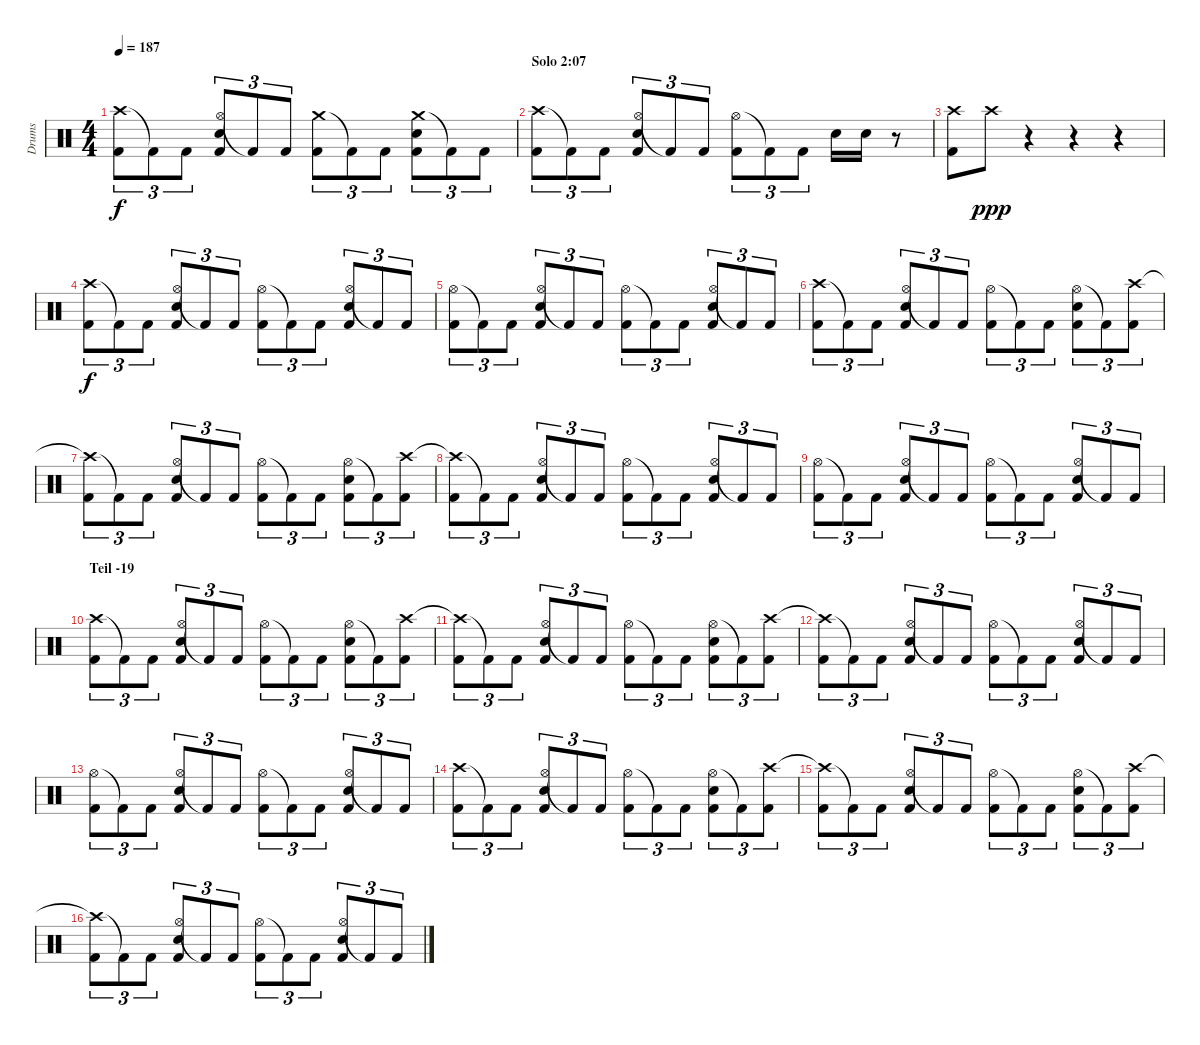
\track ("Drums" "Drums") {instrument percussion}
\staff {score}
\articulation defaults
\ts (4 4)
\tempo 187
\clef neutral
\ks c
("Crash high (hit)" "Kick (hit) 2").8{tu (3 2) dy f} "Kick (hit) 2"{t}.8{tu (3 2)} "Kick (hit) 2".8{tu (3 2)} ("Hi-Hat (open)" "Snare (hit) 2" "Kick (hit) 2").8{tu (3 2)} "Kick (hit) 2"{t}.8{tu (3 2)} "Kick (hit) 2".8{tu (3 2)} ("Crash medium (hit)" "Kick (hit) 2").8{tu (3 2)} "Kick (hit) 2"{t}.8{tu (3 2)} "Kick (hit) 2".8{tu (3 2)} ("Crash medium (hit)" "Snare (hit) 2" "Kick (hit) 2").8{tu (3 2)} "Kick (hit) 2"{t}.8{tu (3 2)} "Kick (hit) 2".8{tu (3 2)} |
\section ("" "Solo 2:07")
("Crash high (hit)" "Kick (hit) 2").8{tu (3 2)} "Kick (hit) 2"{t}.8{tu (3 2)} "Kick (hit) 2".8{tu (3 2)} ("Hi-Hat (open)" "Snare (hit) 2" "Kick (hit) 2").8{tu (3 2)} "Kick (hit) 2"{t}.8{tu (3 2)} "Kick (hit) 2".8{tu (3 2)} ("Hi-Hat (open)" "Kick (hit) 2").8{tu (3 2)} "Kick (hit) 2"{t}.8{tu (3 2)} "Kick (hit) 2".8{tu (3 2)} "Snare (hit) 2".16 "Snare (hit) 2".16 r.8 |
("Kick (hit) 2" "Crash high (hit)").8 "Crash high (hit)".8{dy ppp} r.4 r.4 r.4 |
("Crash high (hit)" "Kick (hit) 2").8{tu (3 2) dy f} "Kick (hit) 2"{t}.8{tu (3 2)} "Kick (hit) 2".8{tu (3 2)} ("Hi-Hat (open)" "Snare (hit) 2" "Kick (hit) 2").8{tu (3 2)} "Kick (hit) 2"{t}.8{tu (3 2)} "Kick (hit) 2".8{tu (3 2)} ("Hi-Hat (open)" "Kick (hit) 2").8{tu (3 2)} "Kick (hit) 2"{t}.8{tu (3 2)} "Kick (hit) 2".8{tu (3 2)} ("Hi-Hat (open)" "Snare (hit) 2" "Kick (hit) 2").8{tu (3 2)} "Kick (hit) 2"{t}.8{tu (3 2)} "Kick (hit) 2".8{tu (3 2)} |
("Hi-Hat (open)" "Kick (hit) 2").8{tu (3 2)} "Kick (hit) 2"{t}.8{tu (3 2)} "Kick (hit) 2".8{tu (3 2)} ("Hi-Hat (open)" "Snare (hit) 2" "Kick (hit) 2").8{tu (3 2)} "Kick (hit) 2"{t}.8{tu (3 2)} "Kick (hit) 2".8{tu (3 2)} ("Hi-Hat (open)" "Kick (hit) 2").8{tu (3 2)} "Kick (hit) 2"{t}.8{tu (3 2)} "Kick (hit) 2".8{tu (3 2)} ("Hi-Hat (open)" "Snare (hit) 2" "Kick (hit) 2").8{tu (3 2)} "Kick (hit) 2"{t}.8{tu (3 2)} "Kick (hit) 2".8{tu (3 2)} |
("Crash high (hit)" "Kick (hit) 2").8{tu (3 2)} "Kick (hit) 2"{t}.8{tu (3 2)} "Kick (hit) 2".8{tu (3 2)} ("Hi-Hat (open)" "Snare (hit) 2" "Kick (hit) 2").8{tu (3 2)} "Kick (hit) 2"{t}.8{tu (3 2)} "Kick (hit) 2".8{tu (3 2)} ("Hi-Hat (open)" "Kick (hit) 2").8{tu (3 2)} "Kick (hit) 2"{t}.8{tu (3 2)} "Kick (hit) 2".8{tu (3 2)} ("Hi-Hat (open)" "Snare (hit) 2" "Kick (hit) 2").8{tu (3 2)} "Kick (hit) 2"{t}.8{tu (3 2)} ("Crash high (hit)" "Kick (hit) 2").8{tu (3 2)} |
("Crash high (hit)"{t} "Kick (hit) 2").8{tu (3 2)} "Kick (hit) 2"{t}.8{tu (3 2)} "Kick (hit) 2".8{tu (3 2)} ("Hi-Hat (open)" "Snare (hit) 2" "Kick (hit) 2").8{tu (3 2)} "Kick (hit) 2"{t}.8{tu (3 2)} "Kick (hit) 2".8{tu (3 2)} ("Hi-Hat (open)" "Kick (hit) 2").8{tu (3 2)} "Kick (hit) 2"{t}.8{tu (3 2)} "Kick (hit) 2".8{tu (3 2)} ("Hi-Hat (open)" "Snare (hit) 2" "Kick (hit) 2").8{tu (3 2)} "Kick (hit) 2"{t}.8{tu (3 2)} ("Crash high (hit)" "Kick (hit) 2").8{tu (3 2)} |
("Crash high (hit)"{t} "Kick (hit) 2").8{tu (3 2)} "Kick (hit) 2"{t}.8{tu (3 2)} "Kick (hit) 2".8{tu (3 2)} ("Hi-Hat (open)" "Snare (hit) 2" "Kick (hit) 2").8{tu (3 2)} "Kick (hit) 2"{t}.8{tu (3 2)} "Kick (hit) 2".8{tu (3 2)} ("Hi-Hat (open)" "Kick (hit) 2").8{tu (3 2)} "Kick (hit) 2"{t}.8{tu (3 2)} "Kick (hit) 2".8{tu (3 2)} ("Hi-Hat (open)" "Snare (hit) 2" "Kick (hit) 2").8{tu (3 2)} "Kick (hit) 2"{t}.8{tu (3 2)} "Kick (hit) 2".8{tu (3 2)} |
("Hi-Hat (open)" "Kick (hit) 2").8{tu (3 2)} "Kick (hit) 2"{t}.8{tu (3 2)} "Kick (hit) 2".8{tu (3 2)} ("Hi-Hat (open)" "Snare (hit) 2" "Kick (hit) 2").8{tu (3 2)} "Kick (hit) 2"{t}.8{tu (3 2)} "Kick (hit) 2".8{tu (3 2)} ("Hi-Hat (open)" "Kick (hit) 2").8{tu (3 2)} "Kick (hit) 2"{t}.8{tu (3 2)} "Kick (hit) 2".8{tu (3 2)} ("Hi-Hat (open)" "Snare (hit) 2" "Kick (hit) 2").8{tu (3 2)} "Kick (hit) 2"{t}.8{tu (3 2)} "Kick (hit) 2".8{tu (3 2)} |
\section ("" "Teil -19")
("Crash high (hit)" "Kick (hit) 2").8{tu (3 2)} "Kick (hit) 2"{t}.8{tu (3 2)} "Kick (hit) 2".8{tu (3 2)} ("Hi-Hat (open)" "Snare (hit) 2" "Kick (hit) 2").8{tu (3 2)} "Kick (hit) 2"{t}.8{tu (3 2)} "Kick (hit) 2".8{tu (3 2)} ("Hi-Hat (open)" "Kick (hit) 2").8{tu (3 2)} "Kick (hit) 2"{t}.8{tu (3 2)} "Kick (hit) 2".8{tu (3 2)} ("Hi-Hat (open)" "Snare (hit) 2" "Kick (hit) 2").8{tu (3 2)} "Kick (hit) 2"{t}.8{tu (3 2)} ("Crash high (hit)" "Kick (hit) 2").8{tu (3 2)} |
("Crash high (hit)"{t} "Kick (hit) 2").8{tu (3 2)} "Kick (hit) 2"{t}.8{tu (3 2)} "Kick (hit) 2".8{tu (3 2)} ("Hi-Hat (open)" "Snare (hit) 2" "Kick (hit) 2").8{tu (3 2)} "Kick (hit) 2"{t}.8{tu (3 2)} "Kick (hit) 2".8{tu (3 2)} ("Hi-Hat (open)" "Kick (hit) 2").8{tu (3 2)} "Kick (hit) 2"{t}.8{tu (3 2)} "Kick (hit) 2".8{tu (3 2)} ("Hi-Hat (open)" "Snare (hit) 2" "Kick (hit) 2").8{tu (3 2)} "Kick (hit) 2"{t}.8{tu (3 2)} ("Crash high (hit)" "Kick (hit) 2").8{tu (3 2)} |
("Crash high (hit)"{t} "Kick (hit) 2").8{tu (3 2)} "Kick (hit) 2"{t}.8{tu (3 2)} "Kick (hit) 2".8{tu (3 2)} ("Hi-Hat (open)" "Snare (hit) 2" "Kick (hit) 2").8{tu (3 2)} "Kick (hit) 2"{t}.8{tu (3 2)} "Kick (hit) 2".8{tu (3 2)} ("Hi-Hat (open)" "Kick (hit) 2").8{tu (3 2)} "Kick (hit) 2"{t}.8{tu (3 2)} "Kick (hit) 2".8{tu (3 2)} ("Hi-Hat (open)" "Snare (hit) 2" "Kick (hit) 2").8{tu (3 2)} "Kick (hit) 2"{t}.8{tu (3 2)} "Kick (hit) 2".8{tu (3 2)} |
("Hi-Hat (open)" "Kick (hit) 2").8{tu (3 2)} "Kick (hit) 2"{t}.8{tu (3 2)} "Kick (hit) 2".8{tu (3 2)} ("Hi-Hat (open)" "Snare (hit) 2" "Kick (hit) 2").8{tu (3 2)} "Kick (hit) 2"{t}.8{tu (3 2)} "Kick (hit) 2".8{tu (3 2)} ("Hi-Hat (open)" "Kick (hit) 2").8{tu (3 2)} "Kick (hit) 2"{t}.8{tu (3 2)} "Kick (hit) 2".8{tu (3 2)} ("Hi-Hat (open)" "Snare (hit) 2" "Kick (hit) 2").8{tu (3 2)} "Kick (hit) 2"{t}.8{tu (3 2)} "Kick (hit) 2".8{tu (3 2)} |
("Crash high (hit)" "Kick (hit) 2").8{tu (3 2)} "Kick (hit) 2"{t}.8{tu (3 2)} "Kick (hit) 2".8{tu (3 2)} ("Hi-Hat (open)" "Snare (hit) 2" "Kick (hit) 2").8{tu (3 2)} "Kick (hit) 2"{t}.8{tu (3 2)} "Kick (hit) 2".8{tu (3 2)} ("Hi-Hat (open)" "Kick (hit) 2").8{tu (3 2)} "Kick (hit) 2"{t}.8{tu (3 2)} "Kick (hit) 2".8{tu (3 2)} ("Hi-Hat (open)" "Snare (hit) 2" "Kick (hit) 2").8{tu (3 2)} "Kick (hit) 2"{t}.8{tu (3 2)} ("Crash high (hit)" "Kick (hit) 2").8{tu (3 2)} |
("Crash high (hit)"{t} "Kick (hit) 2").8{tu (3 2)} "Kick (hit) 2"{t}.8{tu (3 2)} "Kick (hit) 2".8{tu (3 2)} ("Hi-Hat (open)" "Snare (hit) 2" "Kick (hit) 2").8{tu (3 2)} "Kick (hit) 2"{t}.8{tu (3 2)} "Kick (hit) 2".8{tu (3 2)} ("Hi-Hat (open)" "Kick (hit) 2").8{tu (3 2)} "Kick (hit) 2"{t}.8{tu (3 2)} "Kick (hit) 2".8{tu (3 2)} ("Hi-Hat (open)" "Snare (hit) 2" "Kick (hit) 2").8{tu (3 2)} "Kick (hit) 2"{t}.8{tu (3 2)} ("Crash high (hit)" "Kick (hit) 2").8{tu (3 2)} |
("Crash high (hit)"{t} "Kick (hit) 2").8{tu (3 2)} "Kick (hit) 2"{t}.8{tu (3 2)} "Kick (hit) 2".8{tu (3 2)} ("Hi-Hat (open)" "Snare (hit) 2" "Kick (hit) 2").8{tu (3 2)} "Kick (hit) 2"{t}.8{tu (3 2)} "Kick (hit) 2".8{tu (3 2)} ("Hi-Hat (open)" "Kick (hit) 2").8{tu (3 2)} "Kick (hit) 2"{t}.8{tu (3 2)} "Kick (hit) 2".8{tu (3 2)} ("Hi-Hat (open)" "Snare (hit) 2" "Kick (hit) 2").8{tu (3 2)} "Kick (hit) 2"{t}.8{tu (3 2)} "Kick (hit) 2".8{tu (3 2)}
